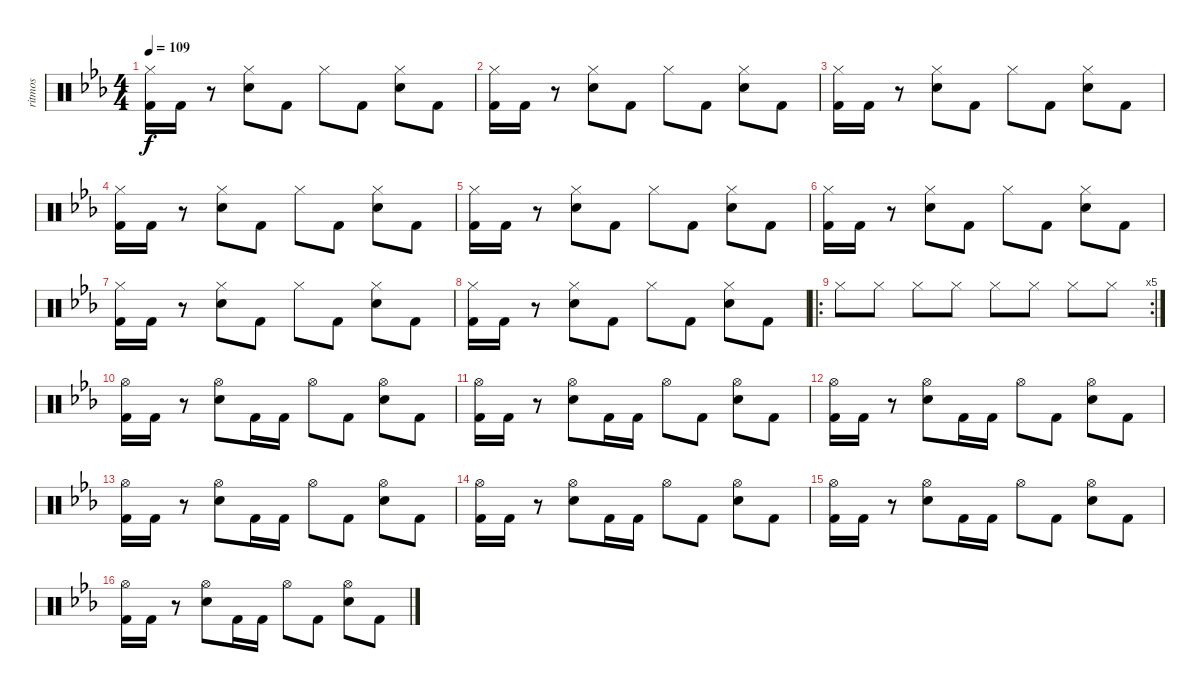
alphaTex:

\track ("ritmos" "ritmos") {instrument percussion}
\staff {score}
\articulation defaults
\ts (4 4)
\tempo 109
\clef neutral
\ks eb
("Hi-Hat (closed)" "Kick (hit) 2").16{dy f} "Kick (hit) 2".16 r.8 ("Hi-Hat (closed)" "Electric Snare (hit)").8 "Kick (hit) 2".8 "Hi-Hat (closed)".8 "Kick (hit) 2".8 ("Hi-Hat (closed)" "Electric Snare (hit)").8 "Kick (hit) 2".8 |
("Hi-Hat (closed)" "Kick (hit) 2").16 "Kick (hit) 2".16 r.8 ("Hi-Hat (closed)" "Electric Snare (hit)").8 "Kick (hit) 2".8 "Hi-Hat (closed)".8 "Kick (hit) 2".8 ("Hi-Hat (closed)" "Electric Snare (hit)").8 "Kick (hit) 2".8 |
("Hi-Hat (closed)" "Kick (hit) 2").16 "Kick (hit) 2".16 r.8 ("Hi-Hat (closed)" "Electric Snare (hit)").8 "Kick (hit) 2".8 "Hi-Hat (closed)".8 "Kick (hit) 2".8 ("Hi-Hat (closed)" "Electric Snare (hit)").8 "Kick (hit) 2".8 |
("Hi-Hat (closed)" "Kick (hit) 2").16 "Kick (hit) 2".16 r.8 ("Hi-Hat (closed)" "Electric Snare (hit)").8 "Kick (hit) 2".8 "Hi-Hat (closed)".8 "Kick (hit) 2".8 ("Hi-Hat (closed)" "Electric Snare (hit)").8 "Kick (hit) 2".8 |
("Hi-Hat (closed)" "Kick (hit) 2").16 "Kick (hit) 2".16 r.8 ("Hi-Hat (closed)" "Electric Snare (hit)").8 "Kick (hit) 2".8 "Hi-Hat (closed)".8 "Kick (hit) 2".8 ("Hi-Hat (closed)" "Electric Snare (hit)").8 "Kick (hit) 2".8 |
("Hi-Hat (closed)" "Kick (hit) 2").16 "Kick (hit) 2".16 r.8 ("Hi-Hat (closed)" "Electric Snare (hit)").8 "Kick (hit) 2".8 "Hi-Hat (closed)".8 "Kick (hit) 2".8 ("Hi-Hat (closed)" "Electric Snare (hit)").8 "Kick (hit) 2".8 |
("Hi-Hat (closed)" "Kick (hit) 2").16 "Kick (hit) 2".16 r.8 ("Hi-Hat (closed)" "Electric Snare (hit)").8 "Kick (hit) 2".8 "Hi-Hat (closed)".8 "Kick (hit) 2".8 ("Hi-Hat (closed)" "Electric Snare (hit)").8 "Kick (hit) 2".8 |
("Hi-Hat (closed)" "Kick (hit) 2").16 "Kick (hit) 2".16 r.8 ("Hi-Hat (closed)" "Electric Snare (hit)").8 "Kick (hit) 2".8 "Hi-Hat (closed)".8 "Kick (hit) 2".8 ("Hi-Hat (closed)" "Electric Snare (hit)").8 "Kick (hit) 2".8 |
\ro
\rc 5 "Hi-Hat (closed)".8 "Hi-Hat (closed)".8 "Hi-Hat (closed)".8 "Hi-Hat (closed)".8 "Hi-Hat (closed)".8 "Hi-Hat (closed)".8 "Hi-Hat (closed)".8 "Hi-Hat (closed)".8
|
("Hi-Hat (open)" "Kick (hit) 2").16 "Kick (hit) 2".16 r.8 ("Hi-Hat (open)" "Electric Snare (hit)").8 "Kick (hit) 2".16 "Kick (hit) 2".16 "Hi-Hat (open)".8 "Kick (hit) 2".8 ("Hi-Hat (open)" "Electric Snare (hit)").8 "Kick (hit) 2".8 |
("Hi-Hat (open)" "Kick (hit) 2").16 "Kick (hit) 2".16 r.8 ("Hi-Hat (open)" "Electric Snare (hit)").8 "Kick (hit) 2".16 "Kick (hit) 2".16 "Hi-Hat (open)".8 "Kick (hit) 2".8 ("Hi-Hat (open)" "Electric Snare (hit)").8 "Kick (hit) 2".8 |
("Hi-Hat (open)" "Kick (hit) 2").16 "Kick (hit) 2".16 r.8 ("Hi-Hat (open)" "Electric Snare (hit)").8 "Kick (hit) 2".16 "Kick (hit) 2".16 "Hi-Hat (open)".8 "Kick (hit) 2".8 ("Hi-Hat (open)" "Electric Snare (hit)").8 "Kick (hit) 2".8 |
("Hi-Hat (open)" "Kick (hit) 2").16 "Kick (hit) 2".16 r.8 ("Hi-Hat (open)" "Electric Snare (hit)").8 "Kick (hit) 2".16 "Kick (hit) 2".16 "Hi-Hat (open)".8 "Kick (hit) 2".8 ("Hi-Hat (open)" "Electric Snare (hit)").8 "Kick (hit) 2".8 |
("Hi-Hat (open)" "Kick (hit) 2").16 "Kick (hit) 2".16 r.8 ("Hi-Hat (open)" "Electric Snare (hit)").8 "Kick (hit) 2".16 "Kick (hit) 2".16 "Hi-Hat (open)".8 "Kick (hit) 2".8 ("Hi-Hat (open)" "Electric Snare (hit)").8 "Kick (hit) 2".8 |
("Hi-Hat (open)" "Kick (hit) 2").16 "Kick (hit) 2".16 r.8 ("Hi-Hat (open)" "Electric Snare (hit)").8 "Kick (hit) 2".16 "Kick (hit) 2".16 "Hi-Hat (open)".8 "Kick (hit) 2".8 ("Hi-Hat (open)" "Electric Snare (hit)").8 "Kick (hit) 2".8 |
("Hi-Hat (open)" "Kick (hit) 2").16 "Kick (hit) 2".16 r.8 ("Hi-Hat (open)" "Electric Snare (hit)").8 "Kick (hit) 2".16 "Kick (hit) 2".16 "Hi-Hat (open)".8 "Kick (hit) 2".8 ("Hi-Hat (open)" "Electric Snare (hit)").8 "Kick (hit) 2".8
